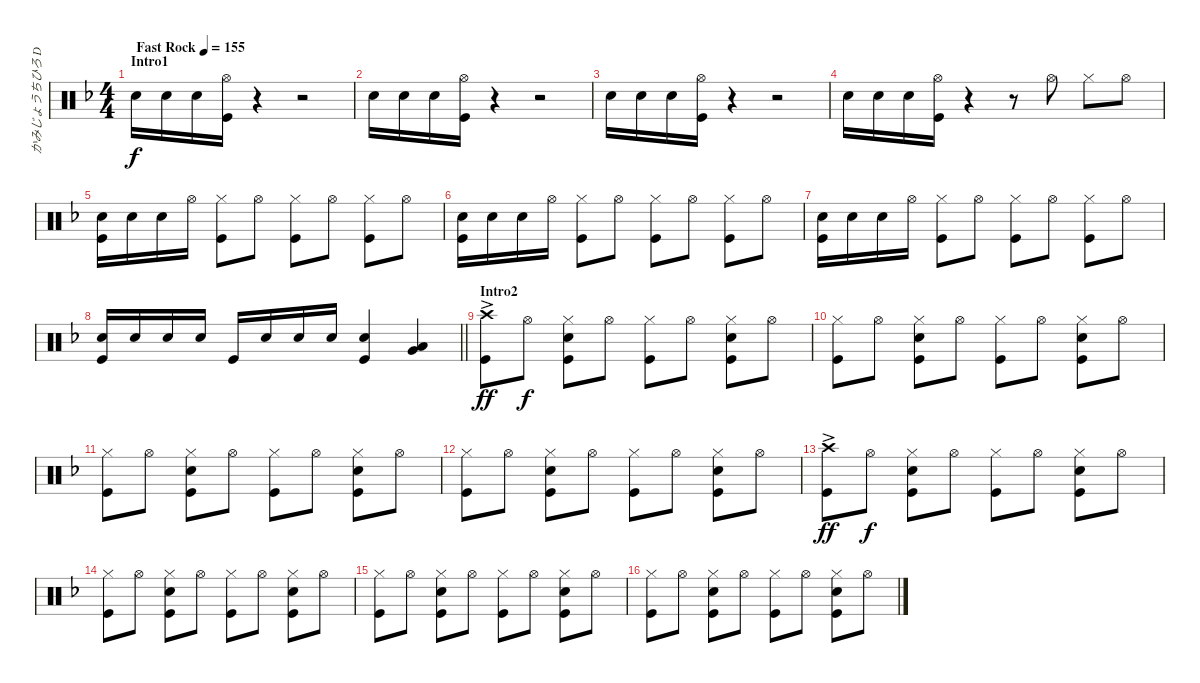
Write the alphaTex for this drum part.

\track ("かみじょうちひろ DRUMS" "かみじょうちひろ D") {instrument percussion}
\staff {score}
\articulation defaults
\ts (4 4)
\section ("" "Intro1")
\tempo (155 "Fast Rock")
\clef neutral
\ks f "Snare (hit) 2".16{dy f} "Snare (hit) 2".16 "Snare (hit) 2".16
("Hi-Hat (open)" "Kick (hit)").16 r.4 r.2 |
"Snare (hit) 2".16 "Snare (hit) 2".16 "Snare (hit) 2".16 ("Hi-Hat (open)" "Kick (hit)").16 r.4 r.2 |
"Snare (hit) 2".16 "Snare (hit) 2".16 "Snare (hit) 2".16 ("Hi-Hat (open)" "Kick (hit)").16 r.4 r.2 |
"Snare (hit) 2".16 "Snare (hit) 2".16 "Snare (hit) 2".16 ("Hi-Hat (open)" "Kick (hit)").16 r.4 r.8 "Hi-Hat (open)".8 "Hi-Hat (closed)".8 "Hi-Hat (open)".8 |
("Snare (hit) 2" "Kick (hit)").16 "Snare (hit) 2".16 "Snare (hit) 2".16 "Hi-Hat (open)".16 ("Hi-Hat (closed)" "Kick (hit)").8 "Hi-Hat (open)".8 ("Hi-Hat (closed)" "Kick (hit)").8 "Hi-Hat (open)".8 ("Hi-Hat (closed)" "Kick (hit)").8 "Hi-Hat (open)".8 |
("Snare (hit) 2" "Kick (hit)").16 "Snare (hit) 2".16 "Snare (hit) 2".16 "Hi-Hat (open)".16 ("Hi-Hat (closed)" "Kick (hit)").8 "Hi-Hat (open)".8 ("Hi-Hat (closed)" "Kick (hit)").8 "Hi-Hat (open)".8 ("Hi-Hat (closed)" "Kick (hit)").8 "Hi-Hat (open)".8 |
("Snare (hit) 2" "Kick (hit)").16 "Snare (hit) 2".16 "Snare (hit) 2".16 "Hi-Hat (open)".16 ("Hi-Hat (closed)" "Kick (hit)").8 "Hi-Hat (open)".8 ("Hi-Hat (closed)" "Kick (hit)").8 "Hi-Hat (open)".8 ("Hi-Hat (closed)" "Kick (hit)").8 "Hi-Hat (open)".8 |
\barLineRight lightlight
("Snare (hit) 2" "Kick (hit)").16 "Snare (hit) 2".16 "Snare (hit) 2".16 "Snare (hit) 2".16 "Kick (hit)".16 "Snare (hit) 2".16 "Snare (hit) 2".16 "Snare (hit) 2".16 ("Snare (hit) 2" "Kick (hit)").4 ("Low Tom (hit)" "Very Low Tom (hit)").4 |
\section ("" "Intro2")
("Crash high (hit)"{ac} "Kick (hit)").8{dy ff} "Hi-Hat (open)".8{dy f} ("Hi-Hat (closed)" "Snare (hit) 2" "Kick (hit)").8 "Hi-Hat (open)".8 ("Hi-Hat (closed)" "Kick (hit)").8 "Hi-Hat (open)".8 ("Hi-Hat (closed)" "Snare (hit) 2" "Kick (hit)").8 "Hi-Hat (open)".8 |
("Hi-Hat (closed)" "Kick (hit)").8 "Hi-Hat (open)".8 ("Hi-Hat (closed)" "Snare (hit) 2" "Kick (hit)").8 "Hi-Hat (open)".8 ("Hi-Hat (closed)" "Kick (hit)").8 "Hi-Hat (open)".8 ("Hi-Hat (closed)" "Snare (hit) 2" "Kick (hit)").8 "Hi-Hat (open)".8 |
("Hi-Hat (closed)" "Kick (hit)").8 "Hi-Hat (open)".8 ("Hi-Hat (closed)" "Snare (hit) 2" "Kick (hit)").8 "Hi-Hat (open)".8 ("Hi-Hat (closed)" "Kick (hit)").8 "Hi-Hat (open)".8 ("Hi-Hat (closed)" "Snare (hit) 2" "Kick (hit)").8 "Hi-Hat (open)".8 |
("Hi-Hat (closed)" "Kick (hit)").8 "Hi-Hat (open)".8 ("Hi-Hat (closed)" "Snare (hit) 2" "Kick (hit)").8 "Hi-Hat (open)".8 ("Hi-Hat (closed)" "Kick (hit)").8 "Hi-Hat (open)".8 ("Hi-Hat (closed)" "Snare (hit) 2" "Kick (hit)").8 "Hi-Hat (open)".8 |
("Crash high (hit)"{ac} "Kick (hit)").8{dy ff} "Hi-Hat (open)".8{dy f} ("Hi-Hat (closed)" "Snare (hit) 2" "Kick (hit)").8 "Hi-Hat (open)".8 ("Hi-Hat (closed)" "Kick (hit)").8 "Hi-Hat (open)".8 ("Hi-Hat (closed)" "Snare (hit) 2" "Kick (hit)").8 "Hi-Hat (open)".8 |
("Hi-Hat (closed)" "Kick (hit)").8 "Hi-Hat (open)".8 ("Hi-Hat (closed)" "Snare (hit) 2" "Kick (hit)").8 "Hi-Hat (open)".8 ("Hi-Hat (closed)" "Kick (hit)").8 "Hi-Hat (open)".8 ("Hi-Hat (closed)" "Snare (hit) 2" "Kick (hit)").8 "Hi-Hat (open)".8 |
("Hi-Hat (closed)" "Kick (hit)").8 "Hi-Hat (open)".8 ("Hi-Hat (closed)" "Snare (hit) 2" "Kick (hit)").8 "Hi-Hat (open)".8 ("Hi-Hat (closed)" "Kick (hit)").8 "Hi-Hat (open)".8 ("Hi-Hat (closed)" "Snare (hit) 2" "Kick (hit)").8 "Hi-Hat (open)".8 |
("Hi-Hat (closed)" "Kick (hit)").8 "Hi-Hat (open)".8 ("Hi-Hat (closed)" "Snare (hit) 2" "Kick (hit)").8 "Hi-Hat (open)".8 ("Hi-Hat (closed)" "Kick (hit)").8 "Hi-Hat (open)".8 ("Hi-Hat (closed)" "Snare (hit) 2" "Kick (hit)").8 "Hi-Hat (open)".8
